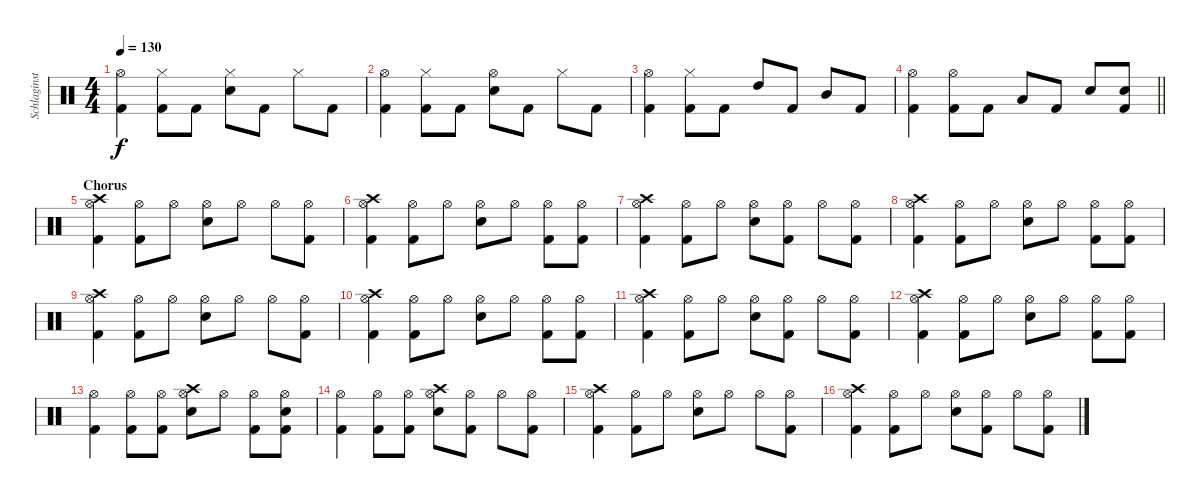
\track ("Schlaginstrumente - Auswahl" "Schlaginst") {instrument percussion}
\staff {score}
\articulation defaults
\ts (4 4)
\tempo 130
\clef neutral
\ks c
("Hi-Hat (open)" "Kick (hit) 2").4{dy f} ("Hi-Hat (closed)" "Kick (hit) 2").8 "Kick (hit) 2".8 ("Hi-Hat (closed)" "Snare (hit) 2").8 "Kick (hit) 2".8 "Hi-Hat (closed)".8 "Kick (hit) 2".8 |
("Hi-Hat (open)" "Kick (hit) 2").4 ("Hi-Hat (closed)" "Kick (hit) 2").8 "Kick (hit) 2".8 ("Hi-Hat (open)" "Snare (hit) 2").8 "Kick (hit) 2".8 "Hi-Hat (closed)".8 "Kick (hit) 2".8 |
("Hi-Hat (open)" "Kick (hit) 2").4 ("Hi-Hat (closed)" "Kick (hit) 2").8 "Kick (hit) 2".8 "High Tom (hit)".8 "Kick (hit) 2".8 "Mid Tom (hit)".8 "Kick (hit) 2".8 |
\barLineRight lightlight
("Hi-Hat (open)" "Kick (hit) 2").4 ("Hi-Hat (open)" "Kick (hit) 2").8 "Kick (hit) 2".8 "Low Tom (hit)".8 "Kick (hit) 2".8 "Snare (hit) 2".8 ("Snare (hit) 2" "Kick (hit) 2").8 |
\section ("" "Chorus")
("Crash high (hit)" "Hi-Hat (open)" "Kick (hit) 2").4 ("Hi-Hat (open)" "Kick (hit) 2").8 "Hi-Hat (open)".8 ("Hi-Hat (open)" "Snare (hit) 2").8 "Hi-Hat (open)".8 "Hi-Hat (open)".8 ("Hi-Hat (open)" "Kick (hit) 2").8 |
("Crash high (hit)" "Hi-Hat (open)" "Kick (hit) 2").4 ("Hi-Hat (open)" "Kick (hit) 2").8 "Hi-Hat (open)".8 ("Hi-Hat (open)" "Snare (hit) 2").8 "Hi-Hat (open)".8 ("Hi-Hat (open)" "Kick (hit) 2").8 ("Hi-Hat (open)" "Kick (hit) 2").8 |
("Crash high (hit)" "Hi-Hat (open)" "Kick (hit) 2").4 ("Hi-Hat (open)" "Kick (hit) 2").8 "Hi-Hat (open)".8 ("Hi-Hat (open)" "Snare (hit) 2").8 ("Hi-Hat (open)" "Kick (hit) 2").8 "Hi-Hat (open)".8 ("Hi-Hat (open)" "Kick (hit) 2").8 |
("Crash high (hit)" "Hi-Hat (open)" "Kick (hit) 2").4 ("Hi-Hat (open)" "Kick (hit) 2").8 "Hi-Hat (open)".8 ("Hi-Hat (open)" "Snare (hit) 2").8 "Hi-Hat (open)".8 ("Hi-Hat (open)" "Kick (hit) 2").8 ("Hi-Hat (open)" "Kick (hit) 2").8 |
("Crash high (hit)" "Hi-Hat (open)" "Kick (hit) 2").4 ("Hi-Hat (open)" "Kick (hit) 2").8 "Hi-Hat (open)".8 ("Hi-Hat (open)" "Snare (hit) 2").8 "Hi-Hat (open)".8 "Hi-Hat (open)".8 ("Hi-Hat (open)" "Kick (hit) 2").8 |
("Crash high (hit)" "Hi-Hat (open)" "Kick (hit) 2").4 ("Hi-Hat (open)" "Kick (hit) 2").8 "Hi-Hat (open)".8 ("Hi-Hat (open)" "Snare (hit) 2").8 "Hi-Hat (open)".8 ("Hi-Hat (open)" "Kick (hit) 2").8 ("Hi-Hat (open)" "Kick (hit) 2").8 |
("Crash high (hit)" "Hi-Hat (open)" "Kick (hit) 2").4 ("Hi-Hat (open)" "Kick (hit) 2").8 "Hi-Hat (open)".8 ("Hi-Hat (open)" "Snare (hit) 2").8 ("Hi-Hat (open)" "Kick (hit) 2").8 "Hi-Hat (open)".8 ("Hi-Hat (open)" "Kick (hit) 2").8 |
("Crash high (hit)" "Hi-Hat (open)" "Kick (hit) 2").4 ("Hi-Hat (open)" "Kick (hit) 2").8 "Hi-Hat (open)".8 ("Hi-Hat (open)" "Snare (hit) 2").8 "Hi-Hat (open)".8 ("Hi-Hat (open)" "Kick (hit) 2").8 ("Hi-Hat (open)" "Kick (hit) 2").8 |
("Hi-Hat (open)" "Kick (hit) 2").4 ("Hi-Hat (open)" "Kick (hit) 2").8 ("Hi-Hat (open)" "Kick (hit) 2").8 ("Crash high (hit)" "Hi-Hat (open)" "Snare (hit) 2").8 "Hi-Hat (open)".8 ("Hi-Hat (open)" "Kick (hit) 2").8 ("Hi-Hat (open)" "Snare (hit) 2" "Kick (hit) 2").8 |
("Hi-Hat (open)" "Kick (hit) 2").4 ("Hi-Hat (open)" "Kick (hit) 2").8 ("Hi-Hat (open)" "Kick (hit) 2").8 ("Crash high (hit)" "Hi-Hat (open)" "Snare (hit) 2").8 ("Hi-Hat (open)" "Kick (hit) 2").8 "Hi-Hat (open)".8 ("Hi-Hat (open)" "Kick (hit) 2").8 |
("Crash high (hit)" "Hi-Hat (open)" "Kick (hit) 2").4 ("Hi-Hat (open)" "Kick (hit) 2").8 "Hi-Hat (open)".8 ("Hi-Hat (open)" "Snare (hit) 2").8 "Hi-Hat (open)".8 "Hi-Hat (open)".8 ("Hi-Hat (open)" "Kick (hit) 2").8 |
("Crash high (hit)" "Hi-Hat (open)" "Kick (hit) 2").4 ("Hi-Hat (open)" "Kick (hit) 2").8 "Hi-Hat (open)".8 ("Hi-Hat (open)" "Snare (hit) 2").8 ("Hi-Hat (open)" "Kick (hit) 2").8 "Hi-Hat (open)".8 ("Hi-Hat (open)" "Kick (hit) 2").8
